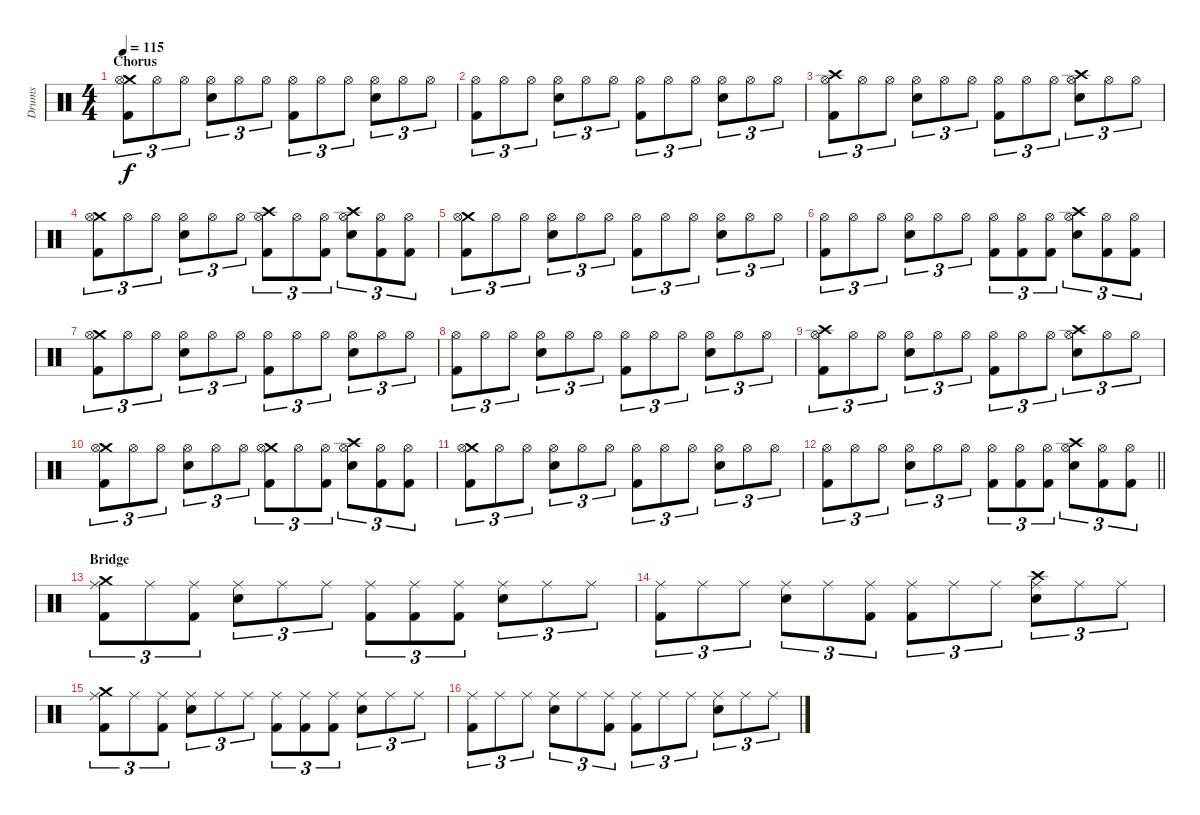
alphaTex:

\track ("Drums" "Drums") {instrument percussion}
\staff {score}
\articulation defaults
\ts (4 4)
\section ("" "Chorus")
\tempo 115
\clef neutral
\ks c
("Crash medium (hit)" "Hi-Hat (open)" "Kick (hit) 2").8{tu (3 2) dy f} "Hi-Hat (open)".8{tu (3 2)} "Hi-Hat (open)".8{tu (3 2)} ("Hi-Hat (open)" "Snare (hit) 2").8{tu (3 2)} "Hi-Hat (open)".8{tu (3 2)} "Hi-Hat (open)".8{tu (3 2)} ("Hi-Hat (open)" "Kick (hit) 2").8{tu (3 2)} "Hi-Hat (open)".8{tu (3 2)} "Hi-Hat (open)".8{tu (3 2)} ("Hi-Hat (open)" "Snare (hit) 2").8{tu (3 2)} "Hi-Hat (open)".8{tu (3 2)} "Hi-Hat (open)".8{tu (3 2)} |
("Hi-Hat (open)" "Kick (hit) 2").8{tu (3 2)} "Hi-Hat (open)".8{tu (3 2)} "Hi-Hat (open)".8{tu (3 2)} ("Hi-Hat (open)" "Snare (hit) 2").8{tu (3 2)} "Hi-Hat (open)".8{tu (3 2)} "Hi-Hat (open)".8{tu (3 2)} ("Hi-Hat (open)" "Kick (hit) 2").8{tu (3 2)} "Hi-Hat (open)".8{tu (3 2)} "Hi-Hat (open)".8{tu (3 2)} ("Hi-Hat (open)" "Snare (hit) 2").8{tu (3 2)} "Hi-Hat (open)".8{tu (3 2)} "Hi-Hat (open)".8{tu (3 2)} |
("Crash high (hit)" "Hi-Hat (open)" "Kick (hit) 2").8{tu (3 2)} "Hi-Hat (open)".8{tu (3 2)} "Hi-Hat (open)".8{tu (3 2)} ("Hi-Hat (open)" "Snare (hit) 2").8{tu (3 2)} "Hi-Hat (open)".8{tu (3 2)} "Hi-Hat (open)".8{tu (3 2)} ("Hi-Hat (open)" "Kick (hit) 2").8{tu (3 2)} "Hi-Hat (open)".8{tu (3 2)} "Hi-Hat (open)".8{tu (3 2)} ("Crash high (hit)" "Hi-Hat (open)" "Snare (hit) 2").8{tu (3 2)} "Hi-Hat (open)".8{tu (3 2)} "Hi-Hat (open)".8{tu (3 2)} |
("Crash medium (hit)" "Hi-Hat (open)" "Kick (hit) 2").8{tu (3 2)} "Hi-Hat (open)".8{tu (3 2)} "Hi-Hat (open)".8{tu (3 2)} ("Hi-Hat (open)" "Snare (hit) 2").8{tu (3 2)} "Hi-Hat (open)".8{tu (3 2)} "Hi-Hat (open)".8{tu (3 2)} ("Crash high (hit)" "Hi-Hat (open)" "Kick (hit) 2").8{tu (3 2)} "Hi-Hat (open)".8{tu (3 2)} ("Hi-Hat (open)" "Kick (hit) 2").8{tu (3 2)} ("Crash high (hit)" "Hi-Hat (open)" "Snare (hit) 2").8{tu (3 2)} ("Hi-Hat (open)" "Kick (hit) 2").8{tu (3 2)} ("Hi-Hat (open)" "Kick (hit) 2").8{tu (3 2)} |
("Crash medium (hit)" "Hi-Hat (open)" "Kick (hit) 2").8{tu (3 2)} "Hi-Hat (open)".8{tu (3 2)} "Hi-Hat (open)".8{tu (3 2)} ("Hi-Hat (open)" "Snare (hit) 2").8{tu (3 2)} "Hi-Hat (open)".8{tu (3 2)} "Hi-Hat (open)".8{tu (3 2)} ("Hi-Hat (open)" "Kick (hit) 2").8{tu (3 2)} "Hi-Hat (open)".8{tu (3 2)} "Hi-Hat (open)".8{tu (3 2)} ("Hi-Hat (open)" "Snare (hit) 2").8{tu (3 2)} "Hi-Hat (open)".8{tu (3 2)} "Hi-Hat (open)".8{tu (3 2)} |
("Hi-Hat (open)" "Kick (hit) 2").8{tu (3 2)} "Hi-Hat (open)".8{tu (3 2)} "Hi-Hat (open)".8{tu (3 2)} ("Hi-Hat (open)" "Snare (hit) 2").8{tu (3 2)} "Hi-Hat (open)".8{tu (3 2)} "Hi-Hat (open)".8{tu (3 2)} ("Hi-Hat (open)" "Kick (hit) 2").8{tu (3 2)} ("Hi-Hat (open)" "Kick (hit) 2").8{tu (3 2)} ("Hi-Hat (open)" "Kick (hit) 2").8{tu (3 2)} ("Crash high (hit)" "Hi-Hat (open)" "Snare (hit) 2").8{tu (3 2)} ("Hi-Hat (open)" "Kick (hit) 2").8{tu (3 2)} ("Hi-Hat (open)" "Kick (hit) 2").8{tu (3 2)} |
("Crash medium (hit)" "Hi-Hat (open)" "Kick (hit) 2").8{tu (3 2)} "Hi-Hat (open)".8{tu (3 2)} "Hi-Hat (open)".8{tu (3 2)} ("Hi-Hat (open)" "Snare (hit) 2").8{tu (3 2)} "Hi-Hat (open)".8{tu (3 2)} "Hi-Hat (open)".8{tu (3 2)} ("Hi-Hat (open)" "Kick (hit) 2").8{tu (3 2)} "Hi-Hat (open)".8{tu (3 2)} "Hi-Hat (open)".8{tu (3 2)} ("Hi-Hat (open)" "Snare (hit) 2").8{tu (3 2)} "Hi-Hat (open)".8{tu (3 2)} "Hi-Hat (open)".8{tu (3 2)} |
("Hi-Hat (open)" "Kick (hit) 2").8{tu (3 2)} "Hi-Hat (open)".8{tu (3 2)} "Hi-Hat (open)".8{tu (3 2)} ("Hi-Hat (open)" "Snare (hit) 2").8{tu (3 2)} "Hi-Hat (open)".8{tu (3 2)} "Hi-Hat (open)".8{tu (3 2)} ("Hi-Hat (open)" "Kick (hit) 2").8{tu (3 2)} "Hi-Hat (open)".8{tu (3 2)} "Hi-Hat (open)".8{tu (3 2)} ("Hi-Hat (open)" "Snare (hit) 2").8{tu (3 2)} "Hi-Hat (open)".8{tu (3 2)} "Hi-Hat (open)".8{tu (3 2)} |
("Crash high (hit)" "Hi-Hat (open)" "Kick (hit) 2").8{tu (3 2)} "Hi-Hat (open)".8{tu (3 2)} "Hi-Hat (open)".8{tu (3 2)} ("Hi-Hat (open)" "Snare (hit) 2").8{tu (3 2)} "Hi-Hat (open)".8{tu (3 2)} "Hi-Hat (open)".8{tu (3 2)} ("Hi-Hat (open)" "Kick (hit) 2").8{tu (3 2)} "Hi-Hat (open)".8{tu (3 2)} "Hi-Hat (open)".8{tu (3 2)} ("Crash high (hit)" "Hi-Hat (open)" "Snare (hit) 2").8{tu (3 2)} "Hi-Hat (open)".8{tu (3 2)} "Hi-Hat (open)".8{tu (3 2)} |
("Crash medium (hit)" "Hi-Hat (open)" "Kick (hit) 2").8{tu (3 2)} "Hi-Hat (open)".8{tu (3 2)} "Hi-Hat (open)".8{tu (3 2)} ("Hi-Hat (open)" "Snare (hit) 2").8{tu (3 2)} "Hi-Hat (open)".8{tu (3 2)} "Hi-Hat (open)".8{tu (3 2)} ("Crash medium (hit)" "Hi-Hat (open)" "Kick (hit) 2").8{tu (3 2)} "Hi-Hat (open)".8{tu (3 2)} ("Hi-Hat (open)" "Kick (hit) 2").8{tu (3 2)} ("Crash high (hit)" "Hi-Hat (open)" "Snare (hit) 2").8{tu (3 2)} ("Hi-Hat (open)" "Kick (hit) 2").8{tu (3 2)} ("Hi-Hat (open)" "Kick (hit) 2").8{tu (3 2)} |
("Crash medium (hit)" "Hi-Hat (open)" "Kick (hit) 2").8{tu (3 2)} "Hi-Hat (open)".8{tu (3 2)} "Hi-Hat (open)".8{tu (3 2)} ("Hi-Hat (open)" "Snare (hit) 2").8{tu (3 2)} "Hi-Hat (open)".8{tu (3 2)} "Hi-Hat (open)".8{tu (3 2)} ("Hi-Hat (open)" "Kick (hit) 2").8{tu (3 2)} "Hi-Hat (open)".8{tu (3 2)} "Hi-Hat (open)".8{tu (3 2)} ("Hi-Hat (open)" "Snare (hit) 2").8{tu (3 2)} "Hi-Hat (open)".8{tu (3 2)} "Hi-Hat (open)".8{tu (3 2)} |
\barLineRight lightlight
("Hi-Hat (open)" "Kick (hit) 2").8{tu (3 2)} "Hi-Hat (open)".8{tu (3 2)} "Hi-Hat (open)".8{tu (3 2)} ("Hi-Hat (open)" "Snare (hit) 2").8{tu (3 2)} "Hi-Hat (open)".8{tu (3 2)} "Hi-Hat (open)".8{tu (3 2)} ("Hi-Hat (open)" "Kick (hit) 2").8{tu (3 2)} ("Hi-Hat (open)" "Kick (hit) 2").8{tu (3 2)} ("Hi-Hat (open)" "Kick (hit) 2").8{tu (3 2)} ("Crash high (hit)" "Hi-Hat (open)" "Snare (hit) 2").8{tu (3 2)} ("Hi-Hat (open)" "Kick (hit) 2").8{tu (3 2)} ("Hi-Hat (open)" "Kick (hit) 2").8{tu (3 2)} |
\section ("" "Bridge")
("Crash medium (hit)" "Ride (middle)" "Kick (hit) 2").8{tu (3 2)} "Ride (middle)".8{tu (3 2)} ("Ride (middle)" "Kick (hit) 2").8{tu (3 2)} ("Ride (middle)" "Snare (hit) 2").8{tu (3 2)} "Ride (middle)".8{tu (3 2)} "Ride (middle)".8{tu (3 2)} ("Ride (middle)" "Kick (hit) 2").8{tu (3 2)} ("Ride (middle)" "Kick (hit) 2").8{tu (3 2)} ("Ride (middle)" "Kick (hit) 2").8{tu (3 2)} ("Ride (middle)" "Snare (hit) 2").8{tu (3 2)} "Ride (middle)".8{tu (3 2)} "Ride (middle)".8{tu (3 2)} |
("Ride (middle)" "Kick (hit) 2").8{tu (3 2)} "Ride (middle)".8{tu (3 2)} "Ride (middle)".8{tu (3 2)} ("Ride (middle)" "Snare (hit) 2").8{tu (3 2)} "Ride (middle)".8{tu (3 2)} ("Ride (middle)" "Kick (hit) 2").8{tu (3 2)} ("Ride (middle)" "Kick (hit) 2").8{tu (3 2)} "Ride (middle)".8{tu (3 2)} "Ride (middle)".8{tu (3 2)} ("Crash high (hit)" "Ride (middle)" "Snare (hit) 2").8{tu (3 2)} "Ride (middle)".8{tu (3 2)} "Ride (middle)".8{tu (3 2)} |
("Crash medium (hit)" "Ride (middle)" "Kick (hit) 2").8{tu (3 2)} "Ride (middle)".8{tu (3 2)} ("Ride (middle)" "Kick (hit) 2").8{tu (3 2)} ("Ride (middle)" "Snare (hit) 2").8{tu (3 2)} "Ride (middle)".8{tu (3 2)} "Ride (middle)".8{tu (3 2)} ("Ride (middle)" "Kick (hit) 2").8{tu (3 2)} ("Ride (middle)" "Kick (hit) 2").8{tu (3 2)} ("Ride (middle)" "Kick (hit) 2").8{tu (3 2)} ("Ride (middle)" "Snare (hit) 2").8{tu (3 2)} "Ride (middle)".8{tu (3 2)} "Ride (middle)".8{tu (3 2)} |
("Ride (middle)" "Kick (hit) 2").8{tu (3 2)} "Ride (middle)".8{tu (3 2)} "Ride (middle)".8{tu (3 2)} ("Ride (middle)" "Snare (hit) 2").8{tu (3 2)} "Ride (middle)".8{tu (3 2)} ("Ride (middle)" "Kick (hit) 2").8{tu (3 2)} ("Ride (middle)" "Kick (hit) 2").8{tu (3 2)} "Ride (middle)".8{tu (3 2)} "Ride (middle)".8{tu (3 2)} ("Ride (middle)" "Snare (hit) 2").8{tu (3 2)} "Ride (middle)".8{tu (3 2)} "Ride (middle)".8{tu (3 2)}
